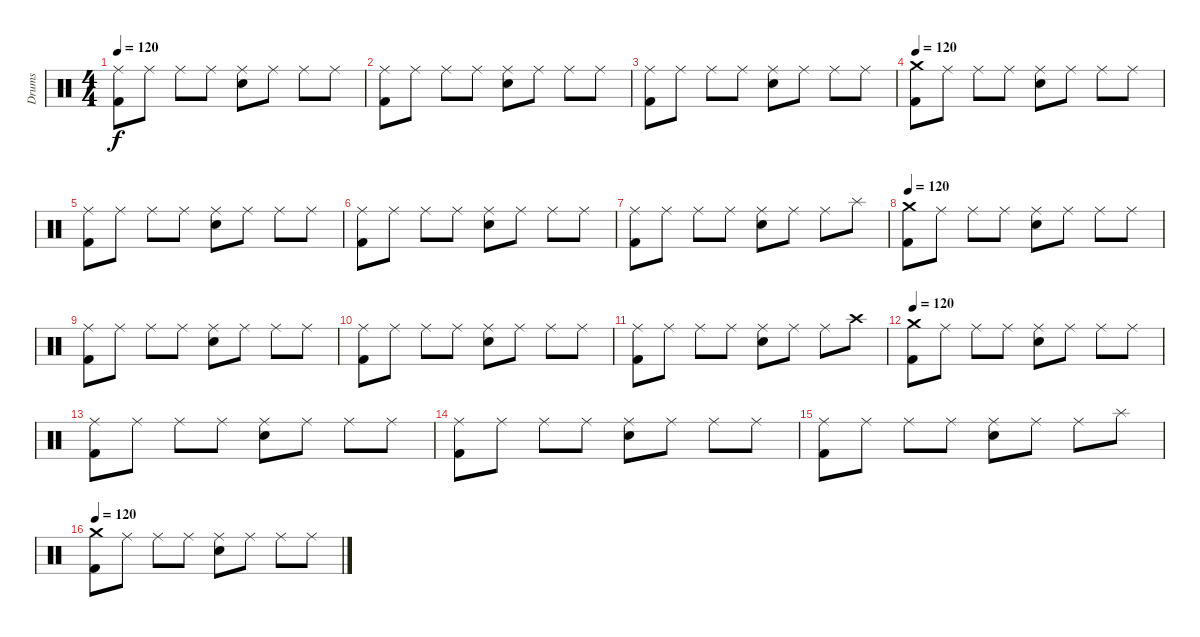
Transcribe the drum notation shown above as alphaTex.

\track ("Drums" "Drums") {instrument percussion}
\staff {score}
\articulation defaults
\ts (4 4)
\tempo 120
\clef neutral
\ks c
("Ride (middle)" "Kick (hit) 2").8{dy f} "Ride (middle)".8 "Ride (middle)".8 "Ride (middle)".8 ("Ride (middle)" "Electric Snare (hit)").8 "Ride (middle)".8 "Ride (middle)".8 "Ride (middle)".8 |
("Ride (middle)" "Kick (hit) 2").8 "Ride (middle)".8 "Ride (middle)".8 "Ride (middle)".8 ("Ride (middle)" "Electric Snare (hit)").8 "Ride (middle)".8 "Ride (middle)".8 "Ride (middle)".8 |
("Ride (middle)" "Kick (hit) 2").8 "Ride (middle)".8 "Ride (middle)".8 "Ride (middle)".8 ("Ride (middle)" "Electric Snare (hit)").8 "Ride (middle)".8 "Ride (middle)".8 "Ride (middle)".8 |
\tempo 120
("Crash medium (hit)" "Kick (hit) 2").8 "Ride (middle)".8 "Ride (middle)".8 "Ride (middle)".8 ("Ride (middle)" "Electric Snare (hit)").8 "Ride (middle)".8 "Ride (middle)".8 "Ride (middle)".8 |
("Ride (middle)" "Kick (hit) 2").8 "Ride (middle)".8 "Ride (middle)".8 "Ride (middle)".8 ("Ride (middle)" "Electric Snare (hit)").8 "Ride (middle)".8 "Ride (middle)".8 "Ride (middle)".8 |
("Ride (middle)" "Kick (hit) 2").8 "Ride (middle)".8 "Ride (middle)".8 "Ride (middle)".8 ("Ride (middle)" "Electric Snare (hit)").8 "Ride (middle)".8 "Ride (middle)".8 "Ride (middle)".8 |
("Ride (middle)" "Kick (hit) 2").8 "Ride (middle)".8 "Ride (middle)".8 "Ride (middle)".8 ("Ride (middle)" "Electric Snare (hit)").8 "Ride (middle)".8 "Ride (middle)".8 "Splash (hit)".8 |
\tempo 120
("Crash medium (hit)" "Kick (hit) 2").8 "Ride (middle)".8 "Ride (middle)".8 "Ride (middle)".8 ("Ride (middle)" "Electric Snare (hit)").8 "Ride (middle)".8 "Ride (middle)".8 "Ride (middle)".8 |
("Ride (middle)" "Kick (hit) 2").8 "Ride (middle)".8 "Ride (middle)".8 "Ride (middle)".8 ("Ride (middle)" "Electric Snare (hit)").8 "Ride (middle)".8 "Ride (middle)".8 "Ride (middle)".8 |
("Ride (middle)" "Kick (hit) 2").8 "Ride (middle)".8 "Ride (middle)".8 "Ride (middle)".8 ("Ride (middle)" "Electric Snare (hit)").8 "Ride (middle)".8 "Ride (middle)".8 "Ride (middle)".8 |
("Ride (middle)" "Kick (hit) 2").8 "Ride (middle)".8 "Ride (middle)".8 "Ride (middle)".8 ("Ride (middle)" "Electric Snare (hit)").8 "Ride (middle)".8 "Ride (middle)".8 "Crash high (hit)".8 |
\tempo 120
("Crash medium (hit)" "Kick (hit) 2").8 "Ride (middle)".8 "Ride (middle)".8 "Ride (middle)".8 ("Ride (middle)" "Electric Snare (hit)").8 "Ride (middle)".8 "Ride (middle)".8 "Ride (middle)".8 |
("Ride (middle)" "Kick (hit) 2").8 "Ride (middle)".8 "Ride (middle)".8 "Ride (middle)".8 ("Ride (middle)" "Electric Snare (hit)").8 "Ride (middle)".8 "Ride (middle)".8 "Ride (middle)".8 |
("Ride (middle)" "Kick (hit) 2").8 "Ride (middle)".8 "Ride (middle)".8 "Ride (middle)".8 ("Ride (middle)" "Electric Snare (hit)").8 "Ride (middle)".8 "Ride (middle)".8 "Ride (middle)".8 |
("Ride (middle)" "Kick (hit) 2").8 "Ride (middle)".8 "Ride (middle)".8 "Ride (middle)".8 ("Ride (middle)" "Electric Snare (hit)").8 "Ride (middle)".8 "Ride (middle)".8 "Splash (hit)".8 |
\tempo 120
("Crash medium (hit)" "Kick (hit) 2").8 "Ride (middle)".8 "Ride (middle)".8 "Ride (middle)".8 ("Ride (middle)" "Electric Snare (hit)").8 "Ride (middle)".8 "Ride (middle)".8 "Ride (middle)".8
